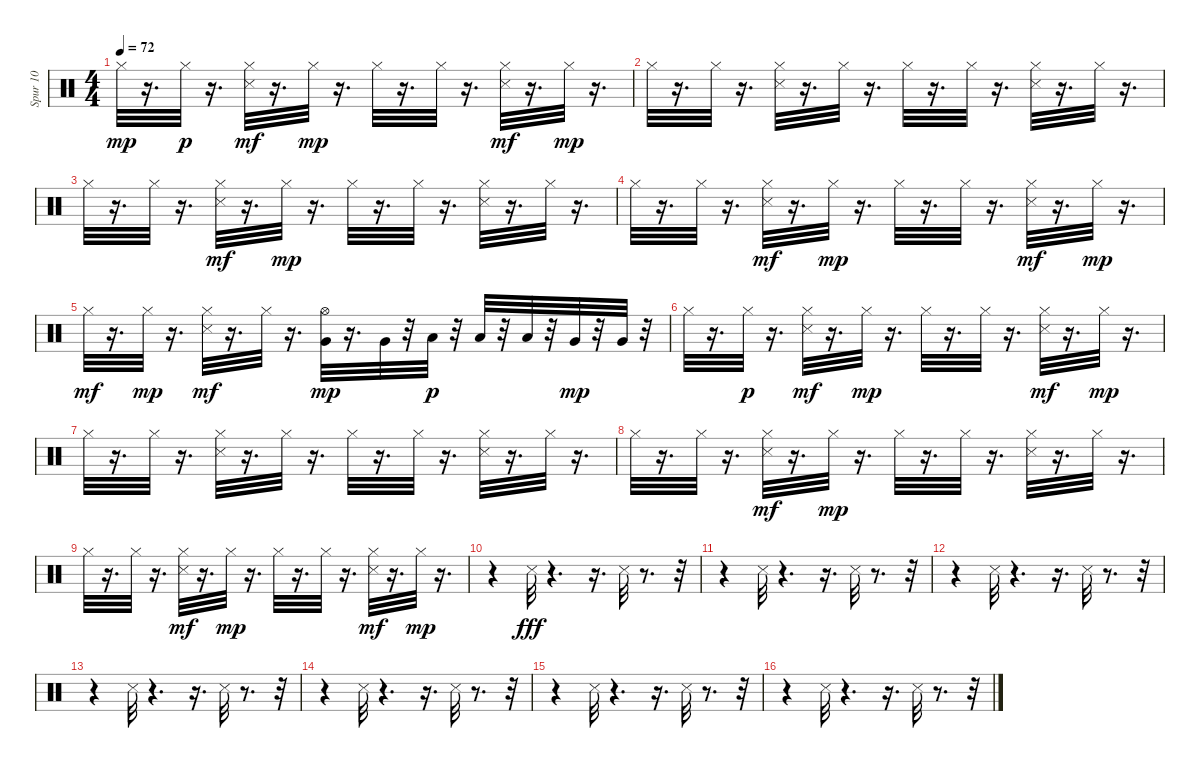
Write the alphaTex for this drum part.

\track ("Spur 10" "Spur 10") {instrument percussion}
\staff {score}
\articulation defaults
\ts (4 4)
\tempo 72
\clef neutral
\ks c "Hi-Hat (closed)".32{dy mp}
r.16{d} "Hi-Hat (closed)".32{dy p} r.16{d} ("Hi-Hat (closed)" "Snare (side stick) 3").32{dy mf} r.16{d} "Hi-Hat (closed)".32{dy mp} r.16{d} "Hi-Hat (closed)".32 r.16{d} "Hi-Hat (closed)".32 r.16{d} ("Hi-Hat (closed)" "Snare (side stick) 3").32{dy mf} r.16{d} "Hi-Hat (closed)".32{dy mp} r.16{d} |
"Hi-Hat (closed)".32 r.16{d} "Hi-Hat (closed)".32 r.16{d} ("Snare (side stick) 3" "Hi-Hat (closed)").32 r.16{d} "Hi-Hat (closed)".32 r.16{d} "Hi-Hat (closed)".32 r.16{d} "Hi-Hat (closed)".32 r.16{d} ("Snare (side stick) 3" "Hi-Hat (closed)").32 r.16{d} "Hi-Hat (closed)".32 r.16{d} |
"Hi-Hat (closed)".32 r.16{d} "Hi-Hat (closed)".32 r.16{d} ("Hi-Hat (closed)" "Snare (side stick) 3").32{dy mf} r.16{d} "Hi-Hat (closed)".32{dy mp} r.16{d} "Hi-Hat (closed)".32 r.16{d} "Hi-Hat (closed)".32 r.16{d} ("Snare (side stick) 3" "Hi-Hat (closed)").32 r.16{d} "Hi-Hat (closed)".32 r.16{d} |
"Hi-Hat (closed)".32 r.16{d} "Hi-Hat (closed)".32 r.16{d} ("Hi-Hat (closed)" "Snare (side stick) 3").32{dy mf} r.16{d} "Hi-Hat (closed)".32{dy mp} r.16{d} "Hi-Hat (closed)".32 r.16{d} "Hi-Hat (closed)".32 r.16{d} ("Hi-Hat (closed)" "Snare (side stick) 3").32{dy mf} r.16{d} "Hi-Hat (closed)".32{dy mp} r.16{d} |
"Hi-Hat (closed)".32{dy mf} r.16{d} "Hi-Hat (closed)".32{dy mp} r.16{d} ("Snare (side stick) 3" "Hi-Hat (closed)").32{dy mf} r.16{d} "Hi-Hat (closed)".32 r.16{d} ("Hi-Hat (open)" "Very Low Tom (hit)").32{dy mp} r.16{d} "Very Low Tom (hit)".32 r.32 "Low Tom (hit)".32{dy p} r.32 "Low Tom (hit)".32 r.32 "Low Tom (hit)".32 r.32 "Very Low Tom (hit)".32{dy mp} r.32 "Very Low Tom (hit)".32 r.32 |
"Hi-Hat (closed)".32 r.16{d} "Hi-Hat (closed)".32{dy p} r.16{d} ("Hi-Hat (closed)" "Snare (side stick) 3").32{dy mf} r.16{d} "Hi-Hat (closed)".32{dy mp} r.16{d} "Hi-Hat (closed)".32 r.16{d} "Hi-Hat (closed)".32 r.16{d} ("Hi-Hat (closed)" "Snare (side stick) 3").32{dy mf} r.16{d} "Hi-Hat (closed)".32{dy mp} r.16{d} |
"Hi-Hat (closed)".32 r.16{d} "Hi-Hat (closed)".32 r.16{d} ("Snare (side stick) 3" "Hi-Hat (closed)").32 r.16{d} "Hi-Hat (closed)".32 r.16{d} "Hi-Hat (closed)".32 r.16{d} "Hi-Hat (closed)".32 r.16{d} ("Snare (side stick) 3" "Hi-Hat (closed)").32 r.16{d} "Hi-Hat (closed)".32 r.16{d} |
"Hi-Hat (closed)".32 r.16{d} "Hi-Hat (closed)".32 r.16{d} ("Hi-Hat (closed)" "Snare (side stick) 3").32{dy mf} r.16{d} "Hi-Hat (closed)".32{dy mp} r.16{d} "Hi-Hat (closed)".32 r.16{d} "Hi-Hat (closed)".32 r.16{d} ("Snare (side stick) 3" "Hi-Hat (closed)").32 r.16{d} "Hi-Hat (closed)".32 r.16{d} |
"Hi-Hat (closed)".32 r.16{d} "Hi-Hat (closed)".32 r.16{d} ("Hi-Hat (closed)" "Snare (side stick) 3").32{dy mf} r.16{d} "Hi-Hat (closed)".32{dy mp} r.16{d} "Hi-Hat (closed)".32 r.16{d} "Hi-Hat (closed)".32 r.16{d} ("Hi-Hat (closed)" "Snare (side stick) 3").32{dy mf} r.16{d} "Hi-Hat (closed)".32{dy mp} r.16{d} |
r.4 "Snare (side stick) 3".32{dy fff volume 15} r.4{d} r.16{d} "Snare (side stick) 3".32 r.8{d} r.32 |
r.4 "Snare (side stick) 3".32 r.4{d} r.16{d} "Snare (side stick) 3".32 r.8{d} r.32 |
r.4 "Snare (side stick) 3".32 r.4{d} r.16{d} "Snare (side stick) 3".32 r.8{d} r.32 |
r.4 "Snare (side stick) 3".32 r.4{d} r.16{d} "Snare (side stick) 3".32 r.8{d} r.32 |
r.4 "Snare (side stick) 3".32 r.4{d} r.16{d} "Snare (side stick) 3".32 r.8{d} r.32 |
r.4 "Snare (side stick) 3".32 r.4{d} r.16{d} "Snare (side stick) 3".32 r.8{d} r.32 |
r.4 "Snare (side stick) 3".32 r.4{d} r.16{d} "Snare (side stick) 3".32 r.8{d} r.32
